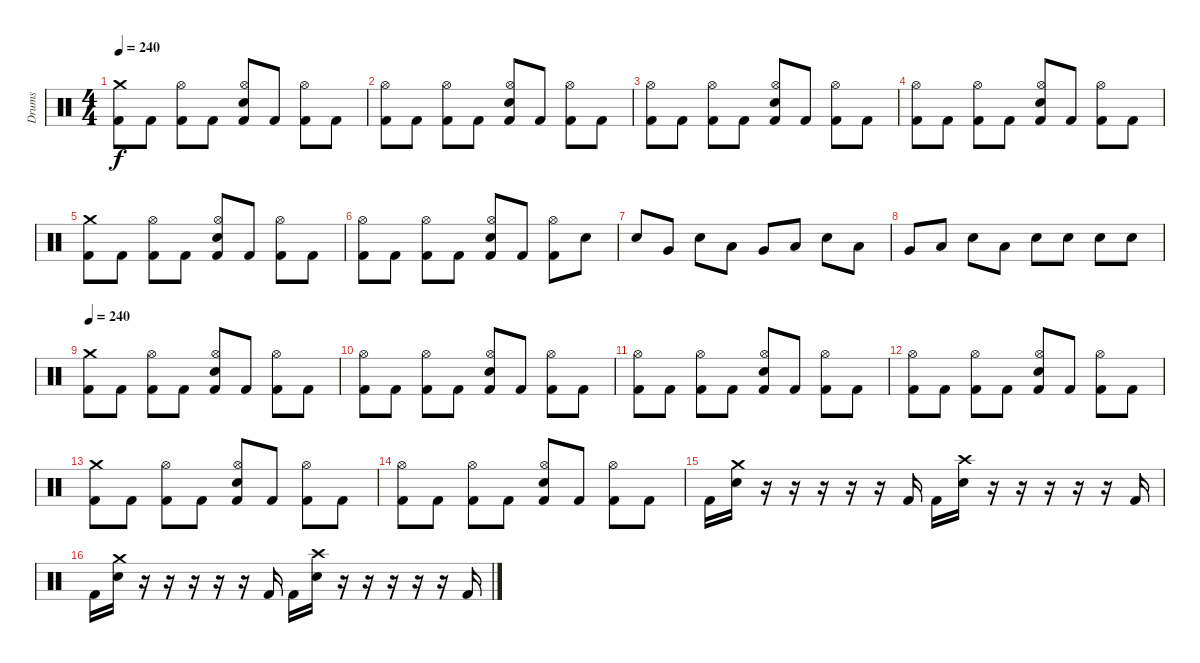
\track ("Drums" "Drums") {instrument percussion}
\staff {score}
\articulation defaults
\ts (4 4)
\tempo 240
\clef neutral
\ks c
("Crash medium (hit)" "Kick (hit) 2").8{dy f} "Kick (hit) 2".8 ("Hi-Hat (open)" "Kick (hit) 2").8 "Kick (hit) 2".8 ("Hi-Hat (open)" "Snare (hit) 2" "Kick (hit) 2").8 "Kick (hit) 2".8 ("Hi-Hat (open)" "Kick (hit) 2").8 "Kick (hit) 2".8 |
("Hi-Hat (open)" "Kick (hit) 2").8 "Kick (hit) 2".8 ("Hi-Hat (open)" "Kick (hit) 2").8 "Kick (hit) 2".8 ("Hi-Hat (open)" "Snare (hit) 2" "Kick (hit) 2").8 "Kick (hit) 2".8 ("Hi-Hat (open)" "Kick (hit) 2").8 "Kick (hit) 2".8 |
("Hi-Hat (open)" "Kick (hit) 2").8 "Kick (hit) 2".8 ("Hi-Hat (open)" "Kick (hit) 2").8 "Kick (hit) 2".8 ("Hi-Hat (open)" "Snare (hit) 2" "Kick (hit) 2").8 "Kick (hit) 2".8 ("Hi-Hat (open)" "Kick (hit) 2").8 "Kick (hit) 2".8 |
("Hi-Hat (open)" "Kick (hit) 2").8 "Kick (hit) 2".8 ("Hi-Hat (open)" "Kick (hit) 2").8 "Kick (hit) 2".8 ("Hi-Hat (open)" "Snare (hit) 2" "Kick (hit) 2").8 "Kick (hit) 2".8 ("Hi-Hat (open)" "Kick (hit) 2").8 "Kick (hit) 2".8 |
("Crash medium (hit)" "Kick (hit) 2").8 "Kick (hit) 2".8 ("Hi-Hat (open)" "Kick (hit) 2").8 "Kick (hit) 2".8 ("Hi-Hat (open)" "Snare (hit) 2" "Kick (hit) 2").8 "Kick (hit) 2".8 ("Hi-Hat (open)" "Kick (hit) 2").8 "Kick (hit) 2".8 |
("Hi-Hat (open)" "Kick (hit) 2").8 "Kick (hit) 2".8 ("Hi-Hat (open)" "Kick (hit) 2").8 "Kick (hit) 2".8 ("Hi-Hat (open)" "Snare (hit) 2" "Kick (hit) 2").8 "Kick (hit) 2".8 ("Hi-Hat (open)" "Kick (hit) 2").8 "Snare (hit) 2".8 |
"Snare (hit) 2".8 "Very Low Tom (hit)".8 "Snare (hit) 2".8 "Low Tom (hit)".8 "Very Low Tom (hit)".8 "Low Tom (hit)".8 "Snare (hit) 2".8 "Low Tom (hit)".8 |
"Very Low Tom (hit)".8 "Low Tom (hit)".8 "Snare (hit) 2".8 "Low Tom (hit)".8 "Snare (hit) 2".8 "Snare (hit) 2".8 "Snare (hit) 2".8 "Snare (hit) 2".8 |
\tempo 240
("Crash medium (hit)" "Kick (hit) 2").8 "Kick (hit) 2".8 ("Hi-Hat (open)" "Kick (hit) 2").8 "Kick (hit) 2".8 ("Hi-Hat (open)" "Snare (hit) 2" "Kick (hit) 2").8 "Kick (hit) 2".8 ("Hi-Hat (open)" "Kick (hit) 2").8 "Kick (hit) 2".8 |
("Hi-Hat (open)" "Kick (hit) 2").8 "Kick (hit) 2".8 ("Hi-Hat (open)" "Kick (hit) 2").8 "Kick (hit) 2".8 ("Hi-Hat (open)" "Snare (hit) 2" "Kick (hit) 2").8 "Kick (hit) 2".8 ("Hi-Hat (open)" "Kick (hit) 2").8 "Kick (hit) 2".8 |
("Hi-Hat (open)" "Kick (hit) 2").8 "Kick (hit) 2".8 ("Hi-Hat (open)" "Kick (hit) 2").8 "Kick (hit) 2".8 ("Hi-Hat (open)" "Snare (hit) 2" "Kick (hit) 2").8 "Kick (hit) 2".8 ("Hi-Hat (open)" "Kick (hit) 2").8 "Kick (hit) 2".8 |
("Hi-Hat (open)" "Kick (hit) 2").8 "Kick (hit) 2".8 ("Hi-Hat (open)" "Kick (hit) 2").8 "Kick (hit) 2".8 ("Hi-Hat (open)" "Snare (hit) 2" "Kick (hit) 2").8 "Kick (hit) 2".8 ("Hi-Hat (open)" "Kick (hit) 2").8 "Kick (hit) 2".8 |
("Crash medium (hit)" "Kick (hit) 2").8 "Kick (hit) 2".8 ("Hi-Hat (open)" "Kick (hit) 2").8 "Kick (hit) 2".8 ("Hi-Hat (open)" "Snare (hit) 2" "Kick (hit) 2").8 "Kick (hit) 2".8 ("Hi-Hat (open)" "Kick (hit) 2").8 "Kick (hit) 2".8 |
("Hi-Hat (open)" "Kick (hit) 2").8 "Kick (hit) 2".8 ("Hi-Hat (open)" "Kick (hit) 2").8 "Kick (hit) 2".8 ("Hi-Hat (open)" "Snare (hit) 2" "Kick (hit) 2").8 "Kick (hit) 2".8 ("Hi-Hat (open)" "Kick (hit) 2").8 "Kick (hit) 2".8 |
"Kick (hit) 2".16 ("Crash medium (hit)" "Snare (hit) 2").16 r.16 r.16 r.16 r.16 r.16 "Kick (hit) 2".16 "Kick (hit) 2".16 ("Crash high (hit)" "Snare (hit) 2").16 r.16 r.16 r.16 r.16 r.16 "Kick (hit) 2".16 |
"Kick (hit) 2".16 ("Crash medium (hit)" "Snare (hit) 2").16 r.16 r.16 r.16 r.16 r.16 "Kick (hit) 2".16 "Kick (hit) 2".16 ("Crash high (hit)" "Snare (hit) 2").16 r.16 r.16 r.16 r.16 r.16 "Kick (hit) 2".16
